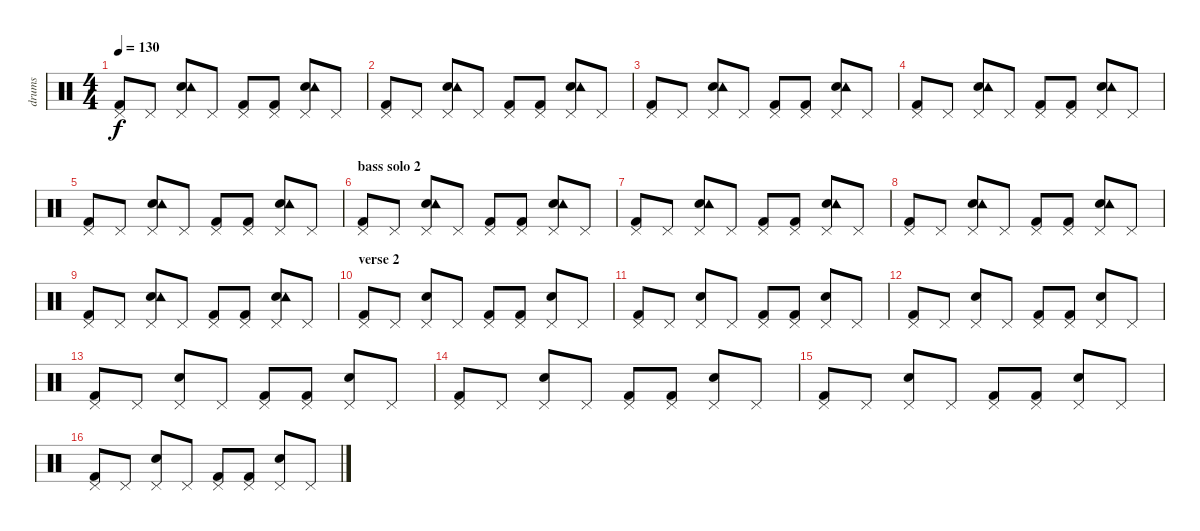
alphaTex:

\track ("drums" "drums") {instrument percussion}
\staff {score}
\articulation defaults
\ts (4 4)
\tempo 130
\clef neutral
\ks c
("Kick (hit) 2" "Pedal Hi-Hat (hit)").8{dy f} "Pedal Hi-Hat (hit)".8 ("Snare (hit) 2" "Tambourine (hit)" "Pedal Hi-Hat (hit)").8 "Pedal Hi-Hat (hit)".8 ("Kick (hit) 2" "Pedal Hi-Hat (hit)").8 ("Kick (hit) 2" "Pedal Hi-Hat (hit)").8 ("Snare (hit) 2" "Tambourine (hit)" "Pedal Hi-Hat (hit)").8 "Pedal Hi-Hat (hit)".8 |
("Kick (hit) 2" "Pedal Hi-Hat (hit)").8 "Pedal Hi-Hat (hit)".8 ("Snare (hit) 2" "Tambourine (hit)" "Pedal Hi-Hat (hit)").8 "Pedal Hi-Hat (hit)".8 ("Kick (hit) 2" "Pedal Hi-Hat (hit)").8 ("Kick (hit) 2" "Pedal Hi-Hat (hit)").8 ("Snare (hit) 2" "Tambourine (hit)" "Pedal Hi-Hat (hit)").8 "Pedal Hi-Hat (hit)".8 |
("Kick (hit) 2" "Pedal Hi-Hat (hit)").8 "Pedal Hi-Hat (hit)".8 ("Snare (hit) 2" "Tambourine (hit)" "Pedal Hi-Hat (hit)").8 "Pedal Hi-Hat (hit)".8 ("Kick (hit) 2" "Pedal Hi-Hat (hit)").8 ("Kick (hit) 2" "Pedal Hi-Hat (hit)").8 ("Snare (hit) 2" "Tambourine (hit)" "Pedal Hi-Hat (hit)").8 "Pedal Hi-Hat (hit)".8 |
("Kick (hit) 2" "Pedal Hi-Hat (hit)").8 "Pedal Hi-Hat (hit)".8 ("Snare (hit) 2" "Tambourine (hit)" "Pedal Hi-Hat (hit)").8 "Pedal Hi-Hat (hit)".8 ("Kick (hit) 2" "Pedal Hi-Hat (hit)").8 ("Kick (hit) 2" "Pedal Hi-Hat (hit)").8 ("Snare (hit) 2" "Tambourine (hit)" "Pedal Hi-Hat (hit)").8 "Pedal Hi-Hat (hit)".8 |
("Kick (hit) 2" "Pedal Hi-Hat (hit)").8 "Pedal Hi-Hat (hit)".8 ("Snare (hit) 2" "Tambourine (hit)" "Pedal Hi-Hat (hit)").8 "Pedal Hi-Hat (hit)".8 ("Kick (hit) 2" "Pedal Hi-Hat (hit)").8 ("Kick (hit) 2" "Pedal Hi-Hat (hit)").8 ("Snare (hit) 2" "Tambourine (hit)" "Pedal Hi-Hat (hit)").8 "Pedal Hi-Hat (hit)".8 |
\section ("" "bass solo 2")
("Kick (hit) 2" "Pedal Hi-Hat (hit)").8 "Pedal Hi-Hat (hit)".8 ("Snare (hit) 2" "Tambourine (hit)" "Pedal Hi-Hat (hit)").8 "Pedal Hi-Hat (hit)".8 ("Kick (hit) 2" "Pedal Hi-Hat (hit)").8 ("Kick (hit) 2" "Pedal Hi-Hat (hit)").8 ("Snare (hit) 2" "Tambourine (hit)" "Pedal Hi-Hat (hit)").8 "Pedal Hi-Hat (hit)".8 |
("Kick (hit) 2" "Pedal Hi-Hat (hit)").8 "Pedal Hi-Hat (hit)".8 ("Snare (hit) 2" "Tambourine (hit)" "Pedal Hi-Hat (hit)").8 "Pedal Hi-Hat (hit)".8 ("Kick (hit) 2" "Pedal Hi-Hat (hit)").8 ("Kick (hit) 2" "Pedal Hi-Hat (hit)").8 ("Snare (hit) 2" "Tambourine (hit)" "Pedal Hi-Hat (hit)").8 "Pedal Hi-Hat (hit)".8 |
("Kick (hit) 2" "Pedal Hi-Hat (hit)").8 "Pedal Hi-Hat (hit)".8 ("Snare (hit) 2" "Tambourine (hit)" "Pedal Hi-Hat (hit)").8 "Pedal Hi-Hat (hit)".8 ("Kick (hit) 2" "Pedal Hi-Hat (hit)").8 ("Kick (hit) 2" "Pedal Hi-Hat (hit)").8 ("Snare (hit) 2" "Tambourine (hit)" "Pedal Hi-Hat (hit)").8 "Pedal Hi-Hat (hit)".8 |
("Kick (hit) 2" "Pedal Hi-Hat (hit)").8 "Pedal Hi-Hat (hit)".8 ("Snare (hit) 2" "Tambourine (hit)" "Pedal Hi-Hat (hit)").8 "Pedal Hi-Hat (hit)".8 ("Kick (hit) 2" "Pedal Hi-Hat (hit)").8 ("Kick (hit) 2" "Pedal Hi-Hat (hit)").8 ("Snare (hit) 2" "Tambourine (hit)" "Pedal Hi-Hat (hit)").8 "Pedal Hi-Hat (hit)".8 |
\section ("" "verse 2")
("Kick (hit) 2" "Pedal Hi-Hat (hit)").8 "Pedal Hi-Hat (hit)".8 ("Snare (hit) 2" "Pedal Hi-Hat (hit)").8 "Pedal Hi-Hat (hit)".8 ("Kick (hit) 2" "Pedal Hi-Hat (hit)").8 ("Kick (hit) 2" "Pedal Hi-Hat (hit)").8 ("Snare (hit) 2" "Pedal Hi-Hat (hit)").8 "Pedal Hi-Hat (hit)".8 |
("Kick (hit) 2" "Pedal Hi-Hat (hit)").8 "Pedal Hi-Hat (hit)".8 ("Snare (hit) 2" "Pedal Hi-Hat (hit)").8 "Pedal Hi-Hat (hit)".8 ("Kick (hit) 2" "Pedal Hi-Hat (hit)").8 ("Kick (hit) 2" "Pedal Hi-Hat (hit)").8 ("Snare (hit) 2" "Pedal Hi-Hat (hit)").8 "Pedal Hi-Hat (hit)".8 |
("Kick (hit) 2" "Pedal Hi-Hat (hit)").8 "Pedal Hi-Hat (hit)".8 ("Snare (hit) 2" "Pedal Hi-Hat (hit)").8 "Pedal Hi-Hat (hit)".8 ("Kick (hit) 2" "Pedal Hi-Hat (hit)").8 ("Kick (hit) 2" "Pedal Hi-Hat (hit)").8 ("Snare (hit) 2" "Pedal Hi-Hat (hit)").8 "Pedal Hi-Hat (hit)".8 |
("Kick (hit) 2" "Pedal Hi-Hat (hit)").8 "Pedal Hi-Hat (hit)".8 ("Snare (hit) 2" "Pedal Hi-Hat (hit)").8 "Pedal Hi-Hat (hit)".8 ("Kick (hit) 2" "Pedal Hi-Hat (hit)").8 ("Kick (hit) 2" "Pedal Hi-Hat (hit)").8 ("Snare (hit) 2" "Pedal Hi-Hat (hit)").8 "Pedal Hi-Hat (hit)".8 |
("Kick (hit) 2" "Pedal Hi-Hat (hit)").8 "Pedal Hi-Hat (hit)".8 ("Snare (hit) 2" "Pedal Hi-Hat (hit)").8 "Pedal Hi-Hat (hit)".8 ("Kick (hit) 2" "Pedal Hi-Hat (hit)").8 ("Kick (hit) 2" "Pedal Hi-Hat (hit)").8 ("Snare (hit) 2" "Pedal Hi-Hat (hit)").8 "Pedal Hi-Hat (hit)".8 |
("Kick (hit) 2" "Pedal Hi-Hat (hit)").8 "Pedal Hi-Hat (hit)".8 ("Snare (hit) 2" "Pedal Hi-Hat (hit)").8 "Pedal Hi-Hat (hit)".8 ("Kick (hit) 2" "Pedal Hi-Hat (hit)").8 ("Kick (hit) 2" "Pedal Hi-Hat (hit)").8 ("Snare (hit) 2" "Pedal Hi-Hat (hit)").8 "Pedal Hi-Hat (hit)".8 |
("Kick (hit) 2" "Pedal Hi-Hat (hit)").8 "Pedal Hi-Hat (hit)".8 ("Snare (hit) 2" "Pedal Hi-Hat (hit)").8 "Pedal Hi-Hat (hit)".8 ("Kick (hit) 2" "Pedal Hi-Hat (hit)").8 ("Kick (hit) 2" "Pedal Hi-Hat (hit)").8 ("Snare (hit) 2" "Pedal Hi-Hat (hit)").8 "Pedal Hi-Hat (hit)".8
